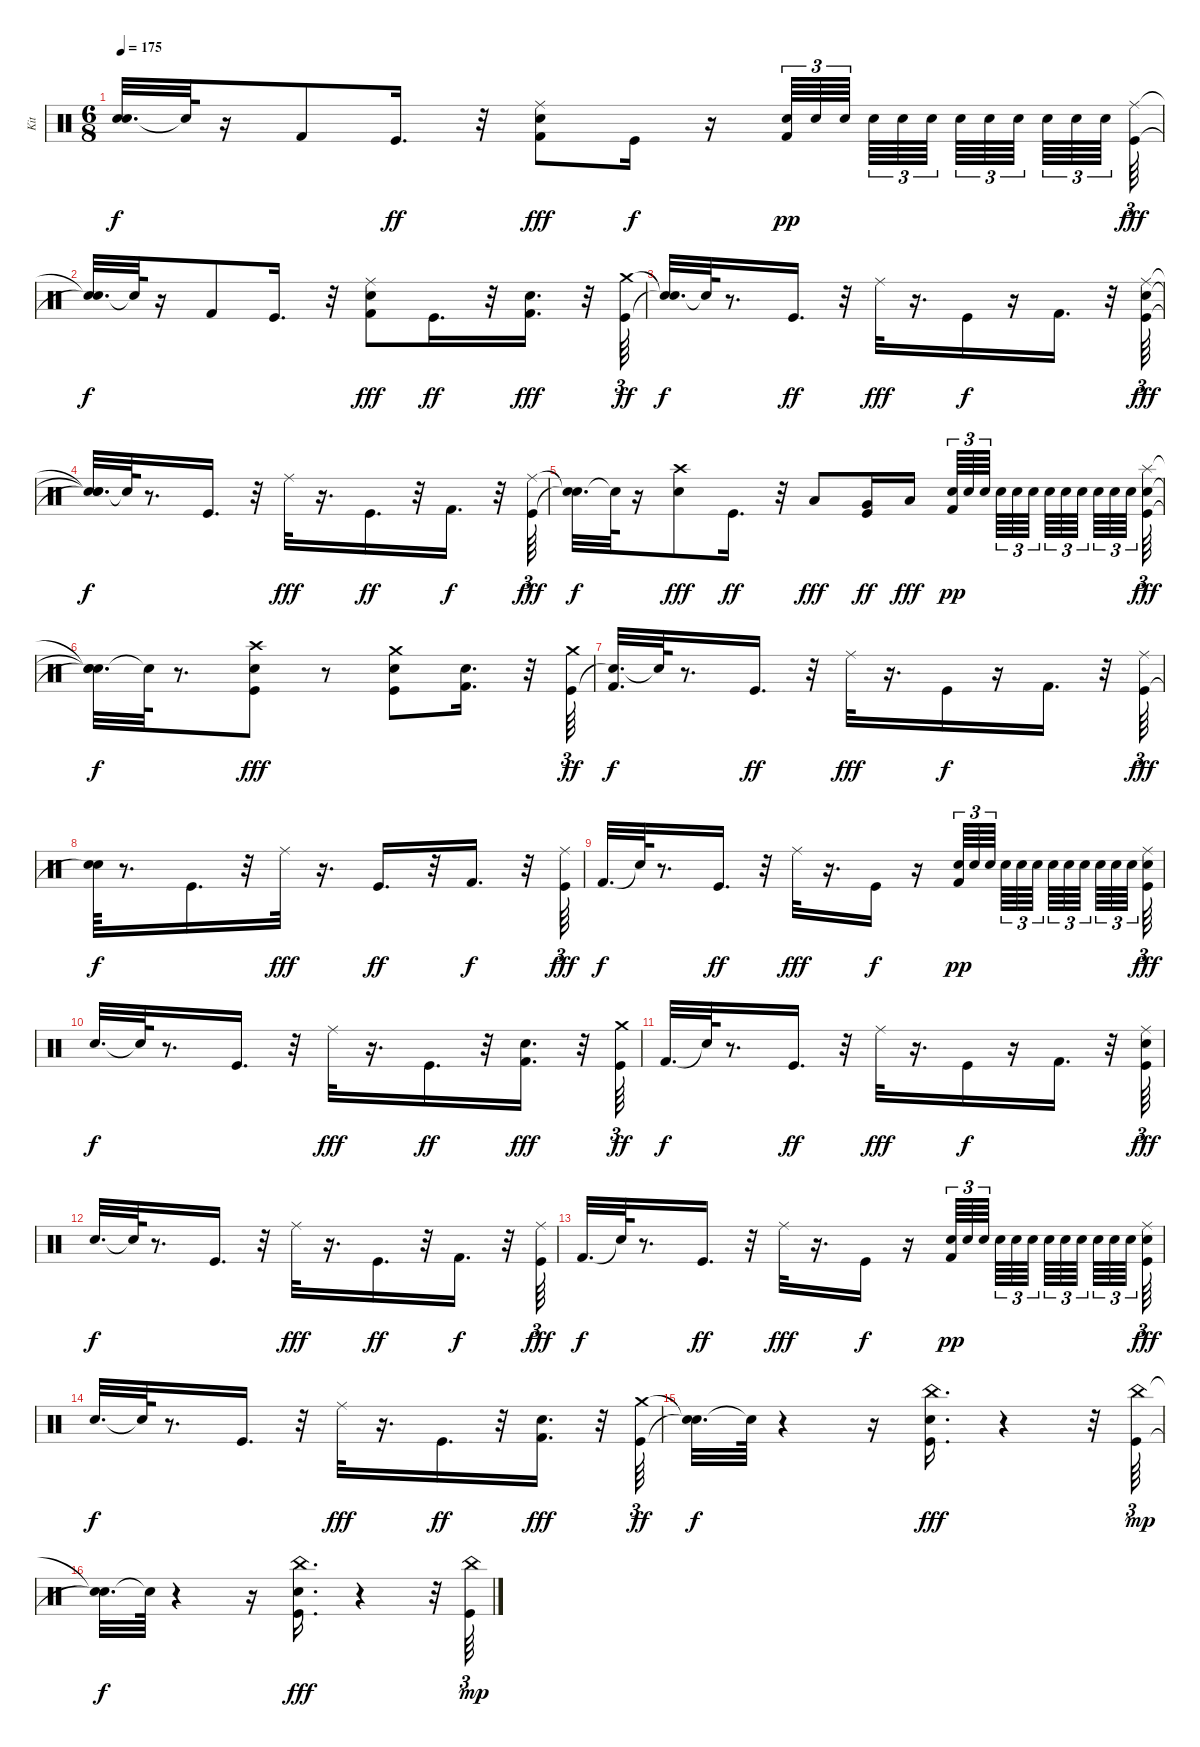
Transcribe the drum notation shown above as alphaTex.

\track ("Kit" "Kit") {instrument percussion}
\staff {score}
\articulation defaults
\ts (6 8)
\tempo 175
\clef neutral
\ks c
("Snare (hit)"{t} "Snare (hit)"{t}).32{d dy f} "Snare (hit)"{t}.64 r.16 "Kick (hit) 2".8 "Kick (hit)".16{d dy ff} r.32 ("Kick (hit) 2" "Snare (hit) 2" "Ride (middle)").8{dy fff} "Kick (hit)".16{dy f} r.16 ("Kick (hit) 2" "Snare (hit) 2").64{tu (3 2) dy pp} "Snare (hit) 2".64{tu (3 2)} "Snare (hit) 2".64{tu (3 2) beam splitsecondary} "Snare (hit) 2".64{tu (3 2)} "Snare (hit) 2".64{tu (3 2)} "Snare (hit) 2".64{tu (3 2) beam splitsecondary} "Snare (hit) 2".64{tu (3 2)} "Snare (hit) 2".64{tu (3 2)} "Snare (hit) 2".64{tu (3 2) beam splitsecondary} "Snare (hit) 2".64{tu (3 2)} "Snare (hit) 2".64{tu (3 2)} "Snare (hit) 2".64{tu (3 2)} ("Kick (hit)" "Ride (middle)").64{tu (3 2) dy fff} |
("Snare (hit)"{t} "Snare (hit)"{t}).32{d dy f} "Snare (hit)"{t}.64 r.16 "Kick (hit) 2".8 "Kick (hit)".16{d} r.32 ("Kick (hit) 2" "Snare (hit) 2" "Ride (middle)").8{dy fff} "Kick (hit)".16{d dy ff} r.32 ("Kick (hit) 2" "Snare (hit) 2").16{d dy fff} r.32 ("Kick (hit)" "Crash medium (hit)").64{tu (3 2) dy ff} |
("Snare (hit)"{t} "Snare (hit)"{t}).32{d dy f} "Snare (hit)"{t}.64 r.8{d} "Kick (hit)".16{d dy ff} r.32 "Ride (middle)".32{dy fff} r.16{d} "Kick (hit)".16{dy f} r.16 "Kick (hit) 2".16{d} r.32 ("Kick (hit)" "Snare (hit) 2" "Ride (middle)").64{tu (3 2) dy fff} |
("Snare (hit)"{t} "Snare (hit)"{t} "Snare (hit)"{t}).32{d dy f} "Snare (hit)"{t}.64 r.8{d} "Kick (hit)".16{d} r.32 "Ride (middle)".32{dy fff} r.16{d} "Kick (hit)".16{d dy ff} r.32 "Kick (hit) 2".16{d dy f} r.32 ("Kick (hit)" "Ride (middle)").64{tu (3 2) dy fff} |
("Snare (hit)"{t} "Snare (hit)"{t}).32{d dy f} "Snare (hit)"{t}.64 r.16 ("Snare (hit) 2" "Crash high (hit)").8{dy fff} "Kick (hit)".16{d dy ff} r.32 "Low Tom (hit)".8{dy fff} ("Kick (hit)" "Very Low Tom (hit)").16{dy ff} "Low Floor Tom (hit)".16{dy fff beam splitsecondary} ("Kick (hit) 2" "Snare (hit) 2").64{tu (3 2) dy pp} "Snare (hit) 2".64{tu (3 2)} "Snare (hit) 2".64{tu (3 2) beam splitsecondary} "Snare (hit) 2".64{tu (3 2)} "Snare (hit) 2".64{tu (3 2)} "Snare (hit) 2".64{tu (3 2) beam splitsecondary} "Snare (hit) 2".64{tu (3 2)} "Snare (hit) 2".64{tu (3 2)} "Snare (hit) 2".64{tu (3 2) beam splitsecondary} "Snare (hit) 2".64{tu (3 2)} "Snare (hit) 2".64{tu (3 2)} "Snare (hit) 2".64{tu (3 2)} ("Kick (hit)" "Snare (hit) 2" "Splash (hit)").64{tu (3 2) dy fff} |
("Snare (hit)"{t} "Snare (hit)"{t} "Snare (hit)"{t}).32{d dy f} "Snare (hit)"{t}.64 r.8{d} ("Kick (hit)" "Snare (hit) 2" "Crash high (hit)").8{dy fff} r.8 ("Kick (hit)" "Snare (hit) 2" "Crash medium (hit)").8 ("Kick (hit) 2" "Snare (hit) 2").16{d} r.32 ("Kick (hit)" "Crash medium (hit)").64{tu (3 2) dy ff} |
("Snare (hit)"{t} "Kick (hit) 2").32{d dy f} "Snare (hit)"{t}.64 r.8{d} "Kick (hit)".16{d dy ff} r.32 "Ride (middle)".32{dy fff} r.16{d} "Kick (hit)".16{dy f} r.16 "Kick (hit) 2".16{d} r.32 ("Kick (hit)" "Ride (middle)").64{tu (3 2) dy fff} |
("Snare (hit)"{t} "Snare (hit) 2").64{dy f} r.8{d} "Kick (hit)".16{d} r.32 "Ride (middle)".32{dy fff} r.16{d} "Kick (hit)".16{d dy ff} r.32 "Kick (hit) 2".16{d dy f} r.32 ("Kick (hit)" "Ride (middle)").64{tu (3 2) dy fff} |
"Kick (hit) 2".32{d dy f} "Snare (hit)"{t}.64 r.8{d} "Kick (hit)".16{d dy ff} r.32 "Ride (middle)".32{dy fff} r.16{d} "Kick (hit)".16{dy f} r.16 ("Kick (hit) 2" "Snare (hit) 2").64{tu (3 2) dy pp} "Snare (hit) 2".64{tu (3 2)} "Snare (hit) 2".64{tu (3 2) beam splitsecondary} "Snare (hit) 2".64{tu (3 2)} "Snare (hit) 2".64{tu (3 2)} "Snare (hit) 2".64{tu (3 2) beam splitsecondary} "Snare (hit) 2".64{tu (3 2)} "Snare (hit) 2".64{tu (3 2)} "Snare (hit) 2".64{tu (3 2) beam splitsecondary} "Snare (hit) 2".64{tu (3 2)} "Snare (hit) 2".64{tu (3 2)} "Snare (hit) 2".64{tu (3 2)} ("Kick (hit)" "Snare (hit) 2" "Ride (middle)").64{tu (3 2) dy fff} |
"Snare (hit) 2".32{d dy f} "Snare (hit)"{t}.64 r.8{d} "Kick (hit)".16{d} r.32 "Ride (middle)".32{dy fff} r.16{d} "Kick (hit)".16{d dy ff} r.32 ("Kick (hit) 2" "Snare (hit) 2").16{d dy fff} r.32 ("Kick (hit)" "Crash medium (hit)").64{tu (3 2) dy ff} |
"Kick (hit) 2".32{d dy f} "Snare (hit)"{t}.64 r.8{d} "Kick (hit)".16{d dy ff} r.32 "Ride (middle)".32{dy fff} r.16{d} "Kick (hit)".16{dy f} r.16 "Kick (hit) 2".16{d} r.32 ("Kick (hit)" "Snare (hit) 2" "Ride (middle)").64{tu (3 2) dy fff} |
"Snare (hit) 2".32{d dy f} "Snare (hit)"{t}.64 r.8{d} "Kick (hit)".16{d} r.32 "Ride (middle)".32{dy fff} r.16{d} "Kick (hit)".16{d dy ff} r.32 "Kick (hit) 2".16{d dy f} r.32 ("Kick (hit)" "Ride (middle)").64{tu (3 2) dy fff} |
"Kick (hit) 2".32{d dy f} "Snare (hit)"{t}.64 r.8{d} "Kick (hit)".16{d dy ff} r.32 "Ride (middle)".32{dy fff} r.16{d} "Kick (hit)".16{dy f} r.16 ("Kick (hit) 2" "Snare (hit) 2").64{tu (3 2) dy pp} "Snare (hit) 2".64{tu (3 2)} "Snare (hit) 2".64{tu (3 2) beam splitsecondary} "Snare (hit) 2".64{tu (3 2)} "Snare (hit) 2".64{tu (3 2)} "Snare (hit) 2".64{tu (3 2) beam splitsecondary} "Snare (hit) 2".64{tu (3 2)} "Snare (hit) 2".64{tu (3 2)} "Snare (hit) 2".64{tu (3 2) beam splitsecondary} "Snare (hit) 2".64{tu (3 2)} "Snare (hit) 2".64{tu (3 2)} "Snare (hit) 2".64{tu (3 2)} ("Kick (hit)" "Snare (hit) 2" "Ride (middle)").64{tu (3 2) dy fff} |
"Snare (hit) 2".32{d dy f} "Snare (hit)"{t}.64 r.8{d} "Kick (hit)".16{d} r.32 "Ride (middle)".32{dy fff} r.16{d} "Kick (hit)".16{d dy ff} r.32 ("Kick (hit) 2" "Snare (hit) 2").16{d dy fff} r.32 ("Kick (hit)" "Crash medium (hit)").64{tu (3 2) dy ff} |
("Snare (hit)"{t} "Snare (hit)"{t}).32{d dy f} "Snare (hit)"{t}.64 r.4 r.16 ("Kick (hit)" "Snare (hit) 2" "China (hit)").16{d dy fff} r.4 r.32 ("Kick (hit)" "China (hit)").64{tu (3 2) dy mp} |
("Snare (hit)"{t} "Snare (hit)"{t}).32{d dy f} "Snare (hit)"{t}.64 r.4 r.16 ("Kick (hit)" "Snare (hit) 2" "China (hit)").16{d dy fff} r.4 r.32 ("Kick (hit)" "China (hit)").64{tu (3 2) dy mp}
